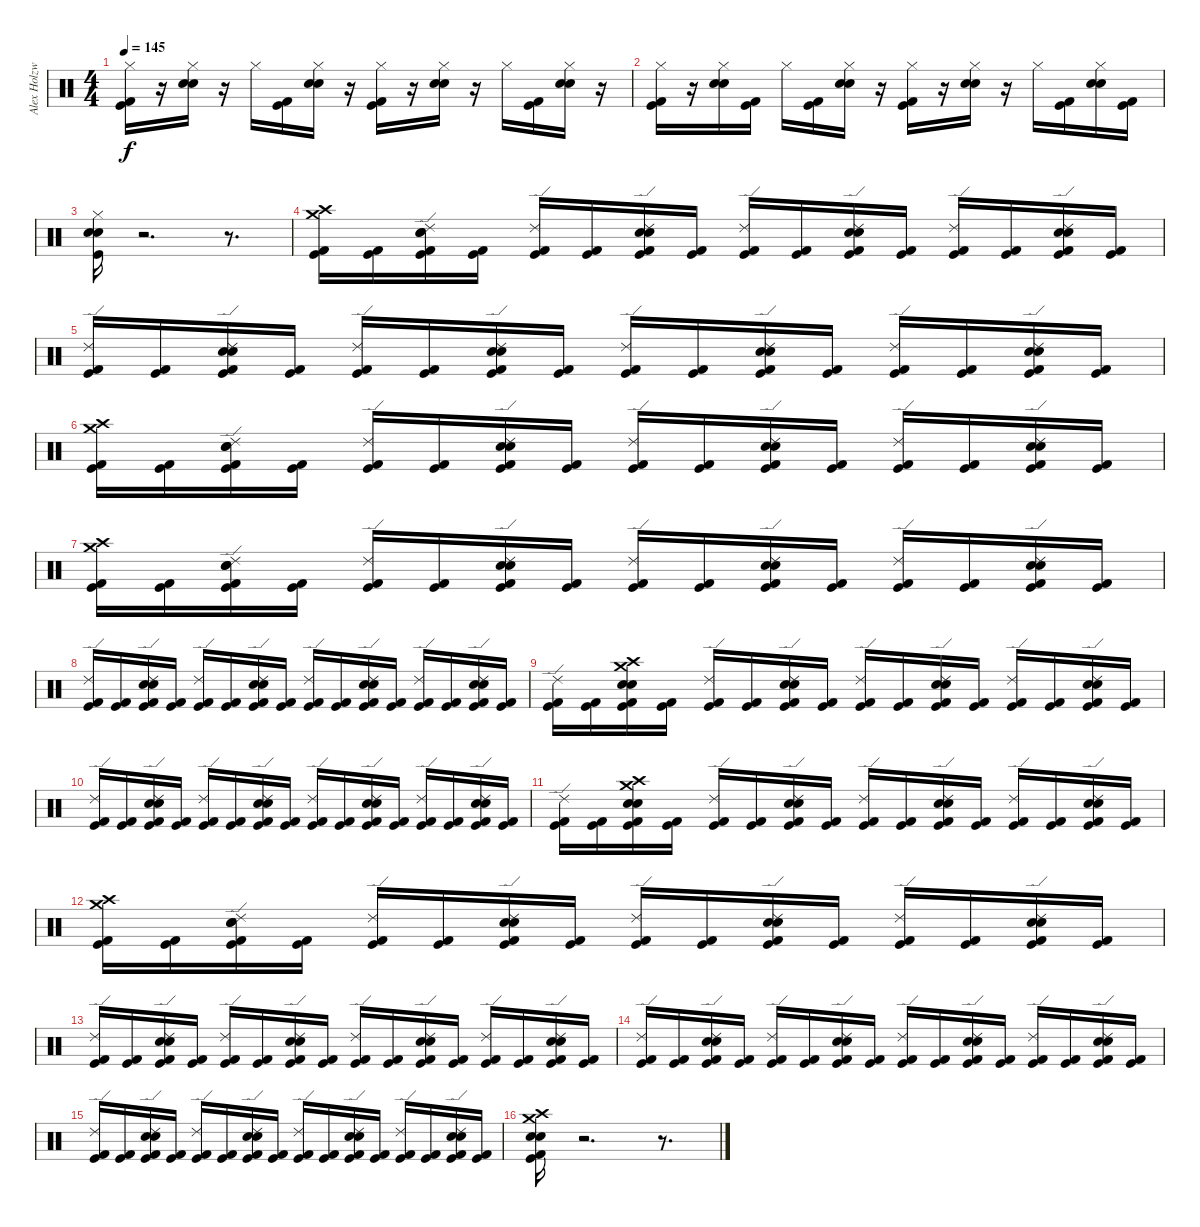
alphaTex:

\track ("Alex Holzwarth" "Alex Holzw") {instrument percussion}
\staff {score}
\articulation defaults
\ts (4 4)
\tempo 145
\clef neutral
\ks c
("Hi-Hat (closed)" "Kick (hit) 2" "Kick (hit)").16{dy f} r.16 ("Hi-Hat (closed)" "Electric Snare (hit)" "Snare (hit) 2").16 r.16 "Hi-Hat (closed)".16 ("Kick (hit) 2" "Kick (hit)").16 ("Electric Snare (hit)" "Snare (hit) 2" "Hi-Hat (closed)").16 r.16 ("Hi-Hat (closed)" "Kick (hit) 2" "Kick (hit)").16 r.16 ("Hi-Hat (closed)" "Electric Snare (hit)" "Snare (hit) 2").16 r.16 "Hi-Hat (closed)".16 ("Kick (hit) 2" "Kick (hit)").16 ("Electric Snare (hit)" "Snare (hit) 2" "Hi-Hat (closed)").16 r.16 |
("Hi-Hat (closed)" "Kick (hit) 2" "Kick (hit)").16 r.16 ("Hi-Hat (closed)" "Electric Snare (hit)" "Snare (hit) 2").16 ("Kick (hit) 2" "Kick (hit)").16 "Hi-Hat (closed)".16 ("Kick (hit) 2" "Kick (hit)").16 ("Electric Snare (hit)" "Snare (hit) 2" "Hi-Hat (closed)").16 r.16 ("Hi-Hat (closed)" "Kick (hit) 2" "Kick (hit)").16 r.16 ("Hi-Hat (closed)" "Electric Snare (hit)" "Snare (hit) 2").16 r.16 "Hi-Hat (closed)".16 ("Kick (hit) 2" "Kick (hit)").16 ("Electric Snare (hit)" "Snare (hit) 2" "Hi-Hat (closed)").16 ("Kick (hit) 2" "Kick (hit)").16 |
("Hi-Hat (closed)" "Kick (hit)" "Electric Snare (hit)" "Snare (hit) 2").16 r.2{d} r.8{d} |
("Crash high (hit)" "Crash medium (hit)" "Kick (hit) 2" "Kick (hit)").16 ("Kick (hit) 2" "Kick (hit)").16 ("Ride (edge) 2" "Electric Snare (hit)" "Snare (hit) 2" "Kick (hit) 2" "Kick (hit)").16 ("Kick (hit) 2" "Kick (hit)").16 ("Ride (edge) 2" "Kick (hit) 2" "Kick (hit)").16 ("Kick (hit) 2" "Kick (hit)").16 ("Ride (edge) 2" "Electric Snare (hit)" "Snare (hit) 2" "Kick (hit) 2" "Kick (hit)").16 ("Kick (hit) 2" "Kick (hit)").16 ("Ride (edge) 2" "Kick (hit) 2" "Kick (hit)").16 ("Kick (hit) 2" "Kick (hit)").16 ("Ride (edge) 2" "Snare (hit) 2" "Electric Snare (hit)" "Kick (hit) 2" "Kick (hit)").16 ("Kick (hit) 2" "Kick (hit)").16 ("Ride (edge) 2" "Kick (hit) 2" "Kick (hit)").16 ("Kick (hit) 2" "Kick (hit)").16 ("Ride (edge) 2" "Snare (hit) 2" "Electric Snare (hit)" "Kick (hit) 2" "Kick (hit)").16 ("Kick (hit) 2" "Kick (hit)").16 |
("Ride (edge) 2" "Kick (hit) 2" "Kick (hit)").16 ("Kick (hit) 2" "Kick (hit)").16 ("Ride (edge) 2" "Snare (hit) 2" "Electric Snare (hit)" "Kick (hit) 2" "Kick (hit)").16 ("Kick (hit) 2" "Kick (hit)").16 ("Ride (edge) 2" "Kick (hit) 2" "Kick (hit)").16 ("Kick (hit) 2" "Kick (hit)").16 ("Ride (edge) 2" "Snare (hit) 2" "Electric Snare (hit)" "Kick (hit) 2" "Kick (hit)").16 ("Kick (hit) 2" "Kick (hit)").16 ("Ride (edge) 2" "Kick (hit) 2" "Kick (hit)").16 ("Kick (hit) 2" "Kick (hit)").16 ("Ride (edge) 2" "Snare (hit) 2" "Electric Snare (hit)" "Kick (hit) 2" "Kick (hit)").16 ("Kick (hit) 2" "Kick (hit)").16 ("Ride (edge) 2" "Kick (hit) 2" "Kick (hit)").16 ("Kick (hit) 2" "Kick (hit)").16 ("Ride (edge) 2" "Snare (hit) 2" "Electric Snare (hit)" "Kick (hit) 2" "Kick (hit)").16 ("Kick (hit) 2" "Kick (hit)").16 |
("Crash high (hit)" "Crash medium (hit)" "Kick (hit) 2" "Kick (hit)").16 ("Kick (hit) 2" "Kick (hit)").16 ("Ride (edge) 2" "Snare (hit) 2" "Electric Snare (hit)" "Kick (hit) 2" "Kick (hit)").16 ("Kick (hit) 2" "Kick (hit)").16 ("Ride (edge) 2" "Kick (hit) 2" "Kick (hit)").16 ("Kick (hit) 2" "Kick (hit)").16 ("Ride (edge) 2" "Snare (hit) 2" "Electric Snare (hit)" "Kick (hit) 2" "Kick (hit)").16 ("Kick (hit) 2" "Kick (hit)").16 ("Ride (edge) 2" "Kick (hit) 2" "Kick (hit)").16 ("Kick (hit) 2" "Kick (hit)").16 ("Ride (edge) 2" "Snare (hit) 2" "Electric Snare (hit)" "Kick (hit) 2" "Kick (hit)").16 ("Kick (hit) 2" "Kick (hit)").16 ("Ride (edge) 2" "Kick (hit) 2" "Kick (hit)").16 ("Kick (hit) 2" "Kick (hit)").16 ("Ride (edge) 2" "Snare (hit) 2" "Electric Snare (hit)" "Kick (hit) 2" "Kick (hit)").16 ("Kick (hit) 2" "Kick (hit)").16 |
("Crash high (hit)" "Crash medium (hit)" "Kick (hit) 2" "Kick (hit)").16 ("Kick (hit) 2" "Kick (hit)").16 ("Ride (edge) 2" "Snare (hit) 2" "Electric Snare (hit)" "Kick (hit) 2" "Kick (hit)").16 ("Kick (hit) 2" "Kick (hit)").16 ("Ride (edge) 2" "Kick (hit) 2" "Kick (hit)").16 ("Kick (hit) 2" "Kick (hit)").16 ("Ride (edge) 2" "Snare (hit) 2" "Electric Snare (hit)" "Kick (hit) 2" "Kick (hit)").16 ("Kick (hit) 2" "Kick (hit)").16 ("Ride (edge) 2" "Kick (hit) 2" "Kick (hit)").16 ("Kick (hit) 2" "Kick (hit)").16 ("Ride (edge) 2" "Snare (hit) 2" "Electric Snare (hit)" "Kick (hit) 2" "Kick (hit)").16 ("Kick (hit) 2" "Kick (hit)").16 ("Ride (edge) 2" "Kick (hit) 2" "Kick (hit)").16 ("Kick (hit) 2" "Kick (hit)").16 ("Ride (edge) 2" "Snare (hit) 2" "Electric Snare (hit)" "Kick (hit) 2" "Kick (hit)").16 ("Kick (hit) 2" "Kick (hit)").16 |
("Ride (edge) 2" "Kick (hit) 2" "Kick (hit)").16 ("Kick (hit) 2" "Kick (hit)").16 ("Ride (edge) 2" "Snare (hit) 2" "Electric Snare (hit)" "Kick (hit) 2" "Kick (hit)").16 ("Kick (hit) 2" "Kick (hit)").16 ("Ride (edge) 2" "Kick (hit) 2" "Kick (hit)").16 ("Kick (hit) 2" "Kick (hit)").16 ("Ride (edge) 2" "Snare (hit) 2" "Electric Snare (hit)" "Kick (hit) 2" "Kick (hit)").16 ("Kick (hit) 2" "Kick (hit)").16 ("Ride (edge) 2" "Kick (hit) 2" "Kick (hit)").16 ("Kick (hit) 2" "Kick (hit)").16 ("Ride (edge) 2" "Snare (hit) 2" "Electric Snare (hit)" "Kick (hit) 2" "Kick (hit)").16 ("Kick (hit) 2" "Kick (hit)").16 ("Ride (edge) 2" "Kick (hit) 2" "Kick (hit)").16 ("Kick (hit) 2" "Kick (hit)").16 ("Ride (edge) 2" "Snare (hit) 2" "Electric Snare (hit)" "Kick (hit) 2" "Kick (hit)").16 ("Kick (hit) 2" "Kick (hit)").16 |
("Ride (edge) 2" "Kick (hit) 2" "Kick (hit)").16 ("Kick (hit) 2" "Kick (hit)").16 ("Crash high (hit)" "Crash medium (hit)" "Snare (hit) 2" "Electric Snare (hit)" "Kick (hit) 2" "Kick (hit)").16 ("Kick (hit) 2" "Kick (hit)").16 ("Ride (edge) 2" "Kick (hit) 2" "Kick (hit)").16 ("Kick (hit) 2" "Kick (hit)").16 ("Ride (edge) 2" "Snare (hit) 2" "Electric Snare (hit)" "Kick (hit) 2" "Kick (hit)").16 ("Kick (hit) 2" "Kick (hit)").16 ("Ride (edge) 2" "Kick (hit) 2" "Kick (hit)").16 ("Kick (hit) 2" "Kick (hit)").16 ("Ride (edge) 2" "Snare (hit) 2" "Electric Snare (hit)" "Kick (hit) 2" "Kick (hit)").16 ("Kick (hit) 2" "Kick (hit)").16 ("Ride (edge) 2" "Kick (hit) 2" "Kick (hit)").16 ("Kick (hit) 2" "Kick (hit)").16 ("Ride (edge) 2" "Snare (hit) 2" "Electric Snare (hit)" "Kick (hit) 2" "Kick (hit)").16 ("Kick (hit) 2" "Kick (hit)").16 |
("Ride (edge) 2" "Kick (hit) 2" "Kick (hit)").16 ("Kick (hit) 2" "Kick (hit)").16 ("Ride (edge) 2" "Snare (hit) 2" "Electric Snare (hit)" "Kick (hit) 2" "Kick (hit)").16 ("Kick (hit) 2" "Kick (hit)").16 ("Ride (edge) 2" "Kick (hit) 2" "Kick (hit)").16 ("Kick (hit) 2" "Kick (hit)").16 ("Ride (edge) 2" "Snare (hit) 2" "Electric Snare (hit)" "Kick (hit) 2" "Kick (hit)").16 ("Kick (hit) 2" "Kick (hit)").16 ("Ride (edge) 2" "Kick (hit) 2" "Kick (hit)").16 ("Kick (hit) 2" "Kick (hit)").16 ("Ride (edge) 2" "Snare (hit) 2" "Electric Snare (hit)" "Kick (hit) 2" "Kick (hit)").16 ("Kick (hit) 2" "Kick (hit)").16 ("Ride (edge) 2" "Kick (hit) 2" "Kick (hit)").16 ("Kick (hit) 2" "Kick (hit)").16 ("Ride (edge) 2" "Snare (hit) 2" "Electric Snare (hit)" "Kick (hit) 2" "Kick (hit)").16 ("Kick (hit) 2" "Kick (hit)").16 |
("Ride (edge) 2" "Kick (hit) 2" "Kick (hit)").16 ("Kick (hit) 2" "Kick (hit)").16 ("Crash high (hit)" "Crash medium (hit)" "Snare (hit) 2" "Electric Snare (hit)" "Kick (hit) 2" "Kick (hit)").16 ("Kick (hit) 2" "Kick (hit)").16 ("Ride (edge) 2" "Kick (hit) 2" "Kick (hit)").16 ("Kick (hit) 2" "Kick (hit)").16 ("Ride (edge) 2" "Snare (hit) 2" "Electric Snare (hit)" "Kick (hit) 2" "Kick (hit)").16 ("Kick (hit) 2" "Kick (hit)").16 ("Ride (edge) 2" "Kick (hit) 2" "Kick (hit)").16 ("Kick (hit) 2" "Kick (hit)").16 ("Ride (edge) 2" "Snare (hit) 2" "Electric Snare (hit)" "Kick (hit) 2" "Kick (hit)").16 ("Kick (hit) 2" "Kick (hit)").16 ("Ride (edge) 2" "Kick (hit) 2" "Kick (hit)").16 ("Kick (hit) 2" "Kick (hit)").16 ("Ride (edge) 2" "Snare (hit) 2" "Electric Snare (hit)" "Kick (hit) 2" "Kick (hit)").16 ("Kick (hit) 2" "Kick (hit)").16 |
("Crash high (hit)" "Crash medium (hit)" "Kick (hit) 2" "Kick (hit)").16 ("Kick (hit) 2" "Kick (hit)").16 ("Ride (edge) 2" "Snare (hit) 2" "Electric Snare (hit)" "Kick (hit) 2" "Kick (hit)").16 ("Kick (hit) 2" "Kick (hit)").16 ("Ride (edge) 2" "Kick (hit) 2" "Kick (hit)").16 ("Kick (hit) 2" "Kick (hit)").16 ("Ride (edge) 2" "Snare (hit) 2" "Electric Snare (hit)" "Kick (hit) 2" "Kick (hit)").16 ("Kick (hit) 2" "Kick (hit)").16 ("Ride (edge) 2" "Kick (hit) 2" "Kick (hit)").16 ("Kick (hit) 2" "Kick (hit)").16 ("Ride (edge) 2" "Snare (hit) 2" "Electric Snare (hit)" "Kick (hit) 2" "Kick (hit)").16 ("Kick (hit) 2" "Kick (hit)").16 ("Ride (edge) 2" "Kick (hit) 2" "Kick (hit)").16 ("Kick (hit) 2" "Kick (hit)").16 ("Ride (edge) 2" "Snare (hit) 2" "Electric Snare (hit)" "Kick (hit) 2" "Kick (hit)").16 ("Kick (hit) 2" "Kick (hit)").16 |
("Ride (edge) 2" "Kick (hit) 2" "Kick (hit)").16 ("Kick (hit) 2" "Kick (hit)").16 ("Ride (edge) 2" "Snare (hit) 2" "Electric Snare (hit)" "Kick (hit) 2" "Kick (hit)").16 ("Kick (hit) 2" "Kick (hit)").16 ("Ride (edge) 2" "Kick (hit) 2" "Kick (hit)").16 ("Kick (hit) 2" "Kick (hit)").16 ("Ride (edge) 2" "Snare (hit) 2" "Electric Snare (hit)" "Kick (hit) 2" "Kick (hit)").16 ("Kick (hit) 2" "Kick (hit)").16 ("Ride (edge) 2" "Kick (hit) 2" "Kick (hit)").16 ("Kick (hit) 2" "Kick (hit)").16 ("Ride (edge) 2" "Snare (hit) 2" "Electric Snare (hit)" "Kick (hit) 2" "Kick (hit)").16 ("Kick (hit) 2" "Kick (hit)").16 ("Ride (edge) 2" "Kick (hit) 2" "Kick (hit)").16 ("Kick (hit) 2" "Kick (hit)").16 ("Ride (edge) 2" "Snare (hit) 2" "Electric Snare (hit)" "Kick (hit) 2" "Kick (hit)").16 ("Kick (hit) 2" "Kick (hit)").16 |
("Ride (edge) 2" "Kick (hit) 2" "Kick (hit)").16 ("Kick (hit) 2" "Kick (hit)").16 ("Ride (edge) 2" "Snare (hit) 2" "Electric Snare (hit)" "Kick (hit) 2" "Kick (hit)").16 ("Kick (hit) 2" "Kick (hit)").16 ("Ride (edge) 2" "Kick (hit) 2" "Kick (hit)").16 ("Kick (hit) 2" "Kick (hit)").16 ("Ride (edge) 2" "Snare (hit) 2" "Electric Snare (hit)" "Kick (hit) 2" "Kick (hit)").16 ("Kick (hit) 2" "Kick (hit)").16 ("Ride (edge) 2" "Kick (hit) 2" "Kick (hit)").16 ("Kick (hit) 2" "Kick (hit)").16 ("Ride (edge) 2" "Snare (hit) 2" "Electric Snare (hit)" "Kick (hit) 2" "Kick (hit)").16 ("Kick (hit) 2" "Kick (hit)").16 ("Ride (edge) 2" "Kick (hit) 2" "Kick (hit)").16 ("Kick (hit) 2" "Kick (hit)").16 ("Ride (edge) 2" "Snare (hit) 2" "Electric Snare (hit)" "Kick (hit) 2" "Kick (hit)").16 ("Kick (hit) 2" "Kick (hit)").16 |
("Ride (edge) 2" "Kick (hit) 2" "Kick (hit)").16 ("Kick (hit) 2" "Kick (hit)").16 ("Ride (edge) 2" "Snare (hit) 2" "Electric Snare (hit)" "Kick (hit) 2" "Kick (hit)").16 ("Kick (hit) 2" "Kick (hit)").16 ("Ride (edge) 2" "Kick (hit) 2" "Kick (hit)").16 ("Kick (hit) 2" "Kick (hit)").16 ("Ride (edge) 2" "Snare (hit) 2" "Electric Snare (hit)" "Kick (hit) 2" "Kick (hit)").16 ("Kick (hit) 2" "Kick (hit)").16 ("Ride (edge) 2" "Kick (hit) 2" "Kick (hit)").16 ("Kick (hit) 2" "Kick (hit)").16 ("Ride (edge) 2" "Snare (hit) 2" "Electric Snare (hit)" "Kick (hit) 2" "Kick (hit)").16 ("Kick (hit) 2" "Kick (hit)").16 ("Ride (edge) 2" "Kick (hit) 2" "Kick (hit)").16 ("Kick (hit) 2" "Kick (hit)").16 ("Ride (edge) 2" "Snare (hit) 2" "Electric Snare (hit)" "Kick (hit) 2" "Kick (hit)").16 ("Kick (hit) 2" "Kick (hit)").16 |
("Crash high (hit)" "Crash medium (hit)" "Electric Snare (hit)" "Snare (hit) 2" "Kick (hit) 2" "Kick (hit)").16 r.2{d} r.8{d}
